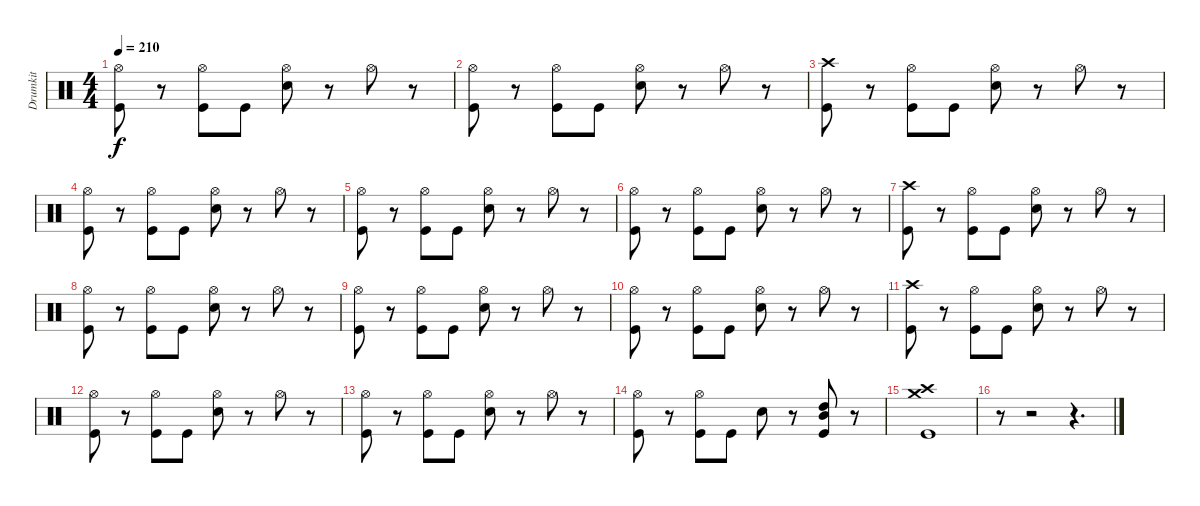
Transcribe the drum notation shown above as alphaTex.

\track ("Drumkit" "Drumkit") {instrument percussion}
\staff {score}
\articulation defaults
\ts (4 4)
\tempo 210
\clef neutral
\ks c
("Hi-Hat (open)" "Kick (hit)").8{dy f} r.8 ("Hi-Hat (open)" "Kick (hit)").8 "Kick (hit)".8 ("Hi-Hat (open)" "Snare (hit) 2").8 r.8 "Hi-Hat (open)".8 r.8 |
("Hi-Hat (open)" "Kick (hit)").8 r.8 ("Hi-Hat (open)" "Kick (hit)").8 "Kick (hit)".8 ("Hi-Hat (open)" "Snare (hit) 2").8 r.8 "Hi-Hat (open)".8 r.8 |
("Crash high (hit)" "Kick (hit)").8 r.8 ("Hi-Hat (open)" "Kick (hit)").8 "Kick (hit)".8 ("Hi-Hat (open)" "Snare (hit) 2").8 r.8 "Hi-Hat (open)".8 r.8 |
("Hi-Hat (open)" "Kick (hit)").8 r.8 ("Hi-Hat (open)" "Kick (hit)").8 "Kick (hit)".8 ("Hi-Hat (open)" "Snare (hit) 2").8 r.8 "Hi-Hat (open)".8 r.8 |
("Hi-Hat (open)" "Kick (hit)").8 r.8 ("Hi-Hat (open)" "Kick (hit)").8 "Kick (hit)".8 ("Hi-Hat (open)" "Snare (hit) 2").8 r.8 "Hi-Hat (open)".8 r.8 |
("Hi-Hat (open)" "Kick (hit)").8 r.8 ("Hi-Hat (open)" "Kick (hit)").8 "Kick (hit)".8 ("Hi-Hat (open)" "Snare (hit) 2").8 r.8 "Hi-Hat (open)".8 r.8 |
("Crash high (hit)" "Kick (hit)").8 r.8 ("Hi-Hat (open)" "Kick (hit)").8 "Kick (hit)".8 ("Hi-Hat (open)" "Snare (hit) 2").8 r.8 "Hi-Hat (open)".8 r.8 |
("Hi-Hat (open)" "Kick (hit)").8 r.8 ("Hi-Hat (open)" "Kick (hit)").8 "Kick (hit)".8 ("Hi-Hat (open)" "Snare (hit) 2").8 r.8 "Hi-Hat (open)".8 r.8 |
("Hi-Hat (open)" "Kick (hit)").8 r.8 ("Hi-Hat (open)" "Kick (hit)").8 "Kick (hit)".8 ("Hi-Hat (open)" "Snare (hit) 2").8 r.8 "Hi-Hat (open)".8 r.8 |
("Hi-Hat (open)" "Kick (hit)").8 r.8 ("Hi-Hat (open)" "Kick (hit)").8 "Kick (hit)".8 ("Hi-Hat (open)" "Snare (hit) 2").8 r.8 "Hi-Hat (open)".8 r.8 |
("Crash high (hit)" "Kick (hit)").8 r.8 ("Hi-Hat (open)" "Kick (hit)").8 "Kick (hit)".8 ("Hi-Hat (open)" "Snare (hit) 2").8 r.8 "Hi-Hat (open)".8 r.8 |
("Hi-Hat (open)" "Kick (hit)").8 r.8 ("Hi-Hat (open)" "Kick (hit)").8 "Kick (hit)".8 ("Hi-Hat (open)" "Snare (hit) 2").8 r.8 "Hi-Hat (open)".8 r.8 |
("Hi-Hat (open)" "Kick (hit)").8 r.8 ("Hi-Hat (open)" "Kick (hit)").8 "Kick (hit)".8 ("Hi-Hat (open)" "Snare (hit) 2").8 r.8 "Hi-Hat (open)".8 r.8 |
("Hi-Hat (open)" "Kick (hit)").8 r.8 ("Hi-Hat (open)" "Kick (hit)").8 "Kick (hit)".8 "Snare (hit) 2".8 r.8 ("High Tom (hit)" "Mid Tom (hit)" "Kick (hit)").8 r.8 |
("Crash high (hit)" "Crash medium (hit)" "Kick (hit)").1 |
r.8 r.2 r.4{d}
